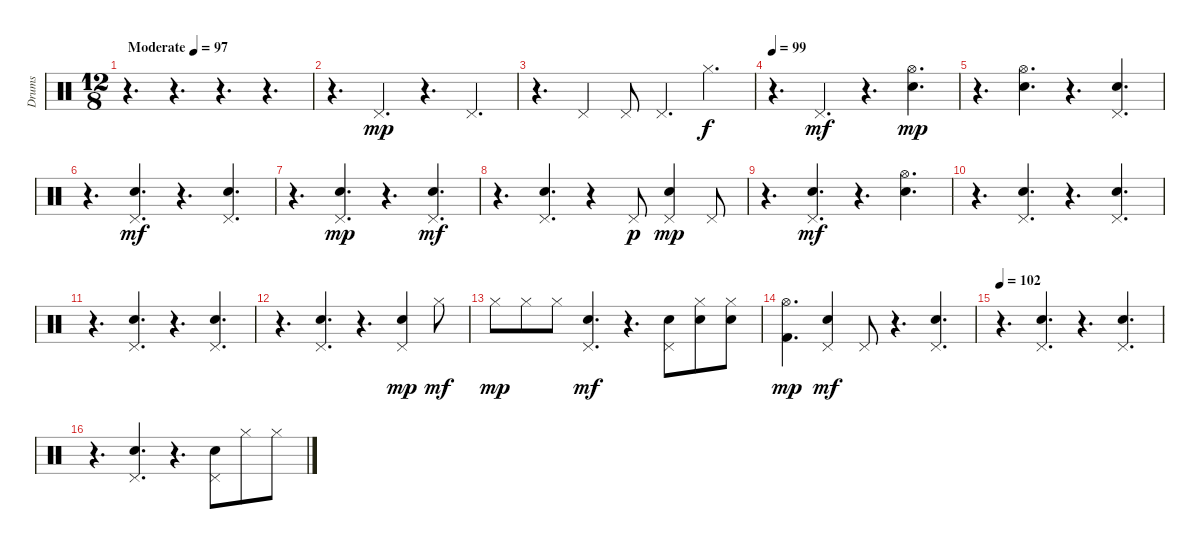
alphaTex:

\track ("Drums" "Drums") {instrument percussion}
\staff {score}
\articulation defaults
\ts (12 8)
\tempo (97 "Moderate")
\clef neutral
\ks c
r.4{d dy mp} r.4{d} r.4{d} r.4{d} |
r.4{d} "Pedal Hi-Hat (hit)".4{d} r.4{d} "Pedal Hi-Hat (hit)".4{d} |
r.4{d} "Pedal Hi-Hat (hit)".4 "Pedal Hi-Hat (hit)".8 "Pedal Hi-Hat (hit)".4{d} "Hi-Hat (closed)".4{d dy f} |
\tempo 99
r.4{d} "Pedal Hi-Hat (hit)".4{d dy mf} r.4{d} ("Hi-Hat (open)" "Snare (hit) 2").4{d dy mp} |
r.4{d} ("Hi-Hat (open)" "Snare (hit) 2").4{d} r.4{d} ("Pedal Hi-Hat (hit)" "Snare (hit) 2").4{d} |
r.4{d} ("Pedal Hi-Hat (hit)" "Snare (hit) 2").4{d dy mf} r.4{d} ("Pedal Hi-Hat (hit)" "Snare (hit) 2").4{d} |
r.4{d} ("Pedal Hi-Hat (hit)" "Snare (hit) 2").4{d dy mp} r.4{d} ("Pedal Hi-Hat (hit)" "Snare (hit) 2").4{d dy mf} |
r.4{d} ("Pedal Hi-Hat (hit)" "Snare (hit) 2").4{d} r.4 "Pedal Hi-Hat (hit)".8{dy p} ("Pedal Hi-Hat (hit)" "Snare (hit) 2").4{dy mp} "Pedal Hi-Hat (hit)".8 |
r.4{d} ("Pedal Hi-Hat (hit)" "Snare (hit) 2").4{d dy mf} r.4{d} ("Hi-Hat (open)" "Snare (hit) 2").4{d} |
r.4{d} ("Pedal Hi-Hat (hit)" "Snare (hit) 2").4{d} r.4{d} ("Pedal Hi-Hat (hit)" "Snare (hit) 2").4{d} |
r.4{d} ("Pedal Hi-Hat (hit)" "Snare (hit) 2").4{d} r.4{d} ("Pedal Hi-Hat (hit)" "Snare (hit) 2").4{d} |
r.4{d} ("Pedal Hi-Hat (hit)" "Snare (hit) 2").4{d} r.4{d} ("Pedal Hi-Hat (hit)" "Snare (hit) 2").4{dy mp} "Hi-Hat (closed)".8{dy mf} |
"Hi-Hat (closed)".8{dy mp} "Hi-Hat (closed)".8 "Hi-Hat (closed)".8 ("Pedal Hi-Hat (hit)" "Snare (hit) 2").4{d dy mf} r.4{d} ("Pedal Hi-Hat (hit)" "Snare (hit) 2").8 ("Hi-Hat (closed)" "Snare (hit) 2").8 ("Hi-Hat (closed)" "Snare (hit) 2").8 |
("Hi-Hat (open)" "Kick (hit) 2").4{d dy mp} ("Pedal Hi-Hat (hit)" "Snare (hit) 2").4{dy mf} "Pedal Hi-Hat (hit)".8 r.4{d} ("Pedal Hi-Hat (hit)" "Snare (hit) 2").4{d} |
\tempo 102
r.4{d} ("Pedal Hi-Hat (hit)" "Snare (hit) 2").4{d} r.4{d} ("Pedal Hi-Hat (hit)" "Snare (hit) 2").4{d} |
r.4{d} ("Pedal Hi-Hat (hit)" "Snare (hit) 2").4{d} r.4{d} ("Pedal Hi-Hat (hit)" "Snare (hit) 2").8 "Hi-Hat (closed)".8 "Hi-Hat (closed)".8
